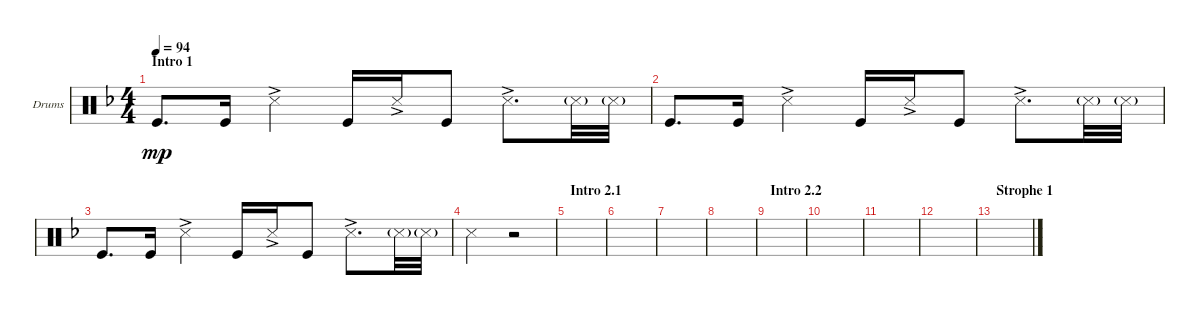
\defaultSystemsLayout 4
\bracketExtendMode groupsimilarinstruments
\firstSystemTrackNameOrientation horizontal
\otherSystemsTrackNameOrientation horizontal
\track ("Drumkit" "Drums") {instrument percussion}
\staff {score}
\articulation defaults
\ts (4 4)
\section ("" "Intro 1")
\tempo 94
\clef neutral
\ks dminor "Kick (hit)".8{d dy mp} "Kick (hit)".16 "Snare (side stick) 3"{ac}.4 "Kick (hit)".16 "Snare (side stick) 3"{ac}.16 "Kick (hit)".8 "Snare (side stick) 3"{ac}.8{d} "Snare (side stick) 3"{g}.32 "Snare (side stick) 3"{g}.32
|
"Kick (hit)".8{d} "Kick (hit)".16 "Snare (side stick) 3"{ac}.4 "Kick (hit)".16 "Snare (side stick) 3"{ac}.16 "Kick (hit)".8 "Snare (side stick) 3"{ac}.8{d} "Snare (side stick) 3"{g}.32 "Snare (side stick) 3"{g}.32 |
"Kick (hit)".8{d} "Kick (hit)".16 "Snare (side stick) 3"{ac}.4 "Kick (hit)".16 "Snare (side stick) 3"{ac}.16 "Kick (hit)".8 "Snare (side stick) 3"{ac}.8{d} "Snare (side stick) 3"{g}.32 "Snare (side stick) 3"{g}.32 |
"Snare (side stick) 3".2 r.2 |
\section ("" "Intro 2.1")
|
|
|
|
\section ("" "Intro 2.2")
|
|
|
|
\section ("" "Strophe 1")
